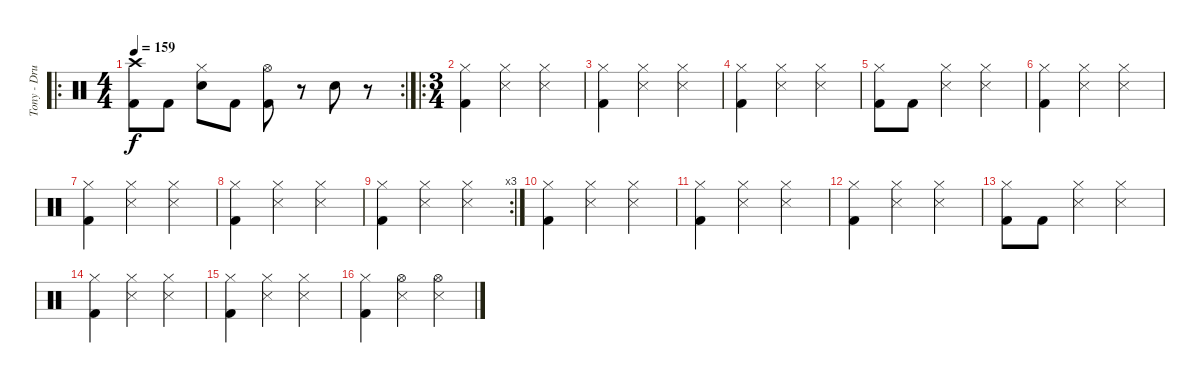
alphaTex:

\track ("Tony - Drums" "Tony - Dru") {instrument percussion}
\staff {score}
\articulation defaults
\ro
\rc 2
\ts (4 4)
\tempo 159
\clef neutral
\ks c
("Kick (hit) 2" "Crash high (hit)").8{dy f} "Kick (hit) 2".8 ("Snare (hit) 2" "Hi-Hat (closed)").8 "Kick (hit) 2".8 ("Kick (hit) 2" "Hi-Hat (open)").8 r.8 "Snare (hit) 2".8 r.8 |
\ro
\ts (3 4)
("Kick (hit) 2" "Hi-Hat (closed)").4 ("Hi-Hat (closed)" "Snare (side stick) 3").4 ("Hi-Hat (closed)" "Snare (side stick) 3").4 |
("Kick (hit) 2" "Hi-Hat (closed)").4 ("Hi-Hat (closed)" "Snare (side stick) 3").4 ("Hi-Hat (closed)" "Snare (side stick) 3").4 |
("Kick (hit) 2" "Hi-Hat (closed)").4 ("Hi-Hat (closed)" "Snare (side stick) 3").4 ("Hi-Hat (closed)" "Snare (side stick) 3").4 |
("Kick (hit) 2" "Hi-Hat (closed)").8 "Kick (hit) 2".8 ("Hi-Hat (closed)" "Snare (side stick) 3").4 ("Hi-Hat (closed)" "Snare (side stick) 3").4 |
("Kick (hit) 2" "Hi-Hat (closed)").4 ("Hi-Hat (closed)" "Snare (side stick) 3").4 ("Hi-Hat (closed)" "Snare (side stick) 3").4 |
("Kick (hit) 2" "Hi-Hat (closed)").4 ("Hi-Hat (closed)" "Snare (side stick) 3").4 ("Hi-Hat (closed)" "Snare (side stick) 3").4 |
("Kick (hit) 2" "Hi-Hat (closed)").4 ("Hi-Hat (closed)" "Snare (side stick) 3").4 ("Hi-Hat (closed)" "Snare (side stick) 3").4 |
\rc 3
("Kick (hit) 2" "Hi-Hat (closed)").4 ("Hi-Hat (closed)" "Snare (side stick) 3").4 ("Hi-Hat (closed)" "Snare (side stick) 3").4 |
("Kick (hit) 2" "Hi-Hat (closed)").4 ("Hi-Hat (closed)" "Snare (side stick) 3").4 ("Hi-Hat (closed)" "Snare (side stick) 3").4 |
("Kick (hit) 2" "Hi-Hat (closed)").4 ("Hi-Hat (closed)" "Snare (side stick) 3").4 ("Hi-Hat (closed)" "Snare (side stick) 3").4 |
("Kick (hit) 2" "Hi-Hat (closed)").4 ("Hi-Hat (closed)" "Snare (side stick) 3").4 ("Hi-Hat (closed)" "Snare (side stick) 3").4 |
("Kick (hit) 2" "Hi-Hat (closed)").8 "Kick (hit) 2".8 ("Hi-Hat (closed)" "Snare (side stick) 3").4 ("Hi-Hat (closed)" "Snare (side stick) 3").4 |
("Kick (hit) 2" "Hi-Hat (closed)").4 ("Hi-Hat (closed)" "Snare (side stick) 3").4 ("Hi-Hat (closed)" "Snare (side stick) 3").4 |
("Kick (hit) 2" "Hi-Hat (closed)").4 ("Hi-Hat (closed)" "Snare (side stick) 3").4 ("Hi-Hat (closed)" "Snare (side stick) 3").4 |
("Kick (hit) 2" "Hi-Hat (closed)").4 ("Hi-Hat (open)" "Snare (side stick) 3").4 ("Hi-Hat (open)" "Snare (side stick) 3").4
